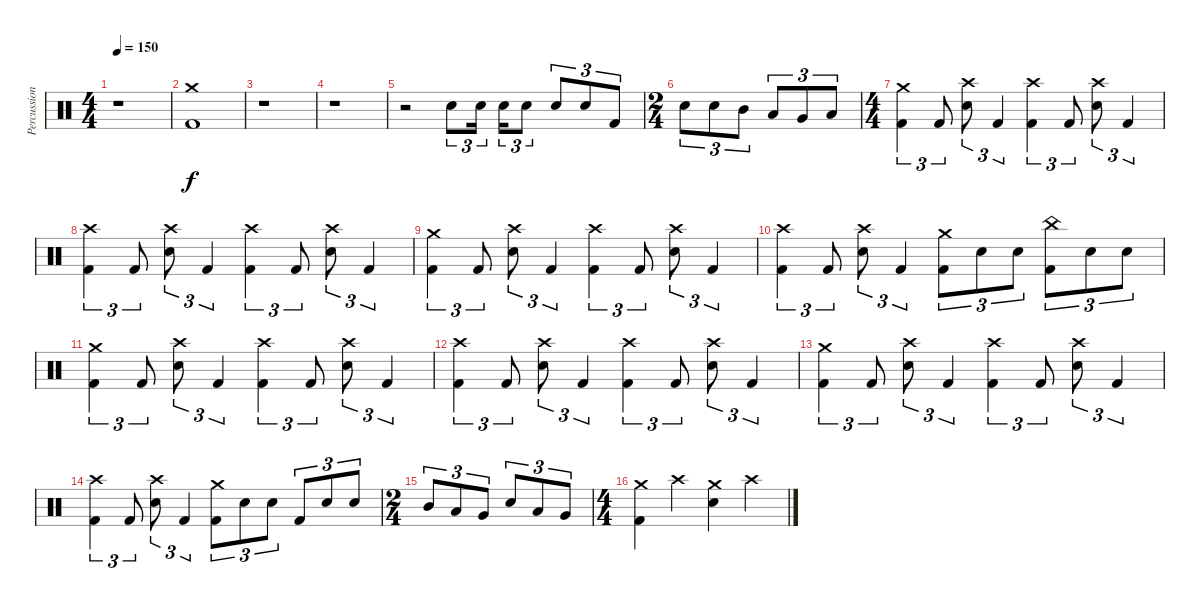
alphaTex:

\track ("Percussion" "Percussion") {instrument percussion}
\staff {score}
\articulation defaults
\ts (4 4)
\tempo 150
\clef neutral
\ks c
r.1{dy f} |
("Crash medium (hit)" "Kick (hit) 2").1 |
r.1 |
r.1 |
r.2 "Electric Snare (hit)".8{tu (3 2)} "Electric Snare (hit)".16{tu (3 2)} "Electric Snare (hit)".16{tu (3 2)} "Electric Snare (hit)".8{tu (3 2)} "Electric Snare (hit)".8{tu (3 2)} "Electric Snare (hit)".8{tu (3 2)} "Kick (hit) 2".8{tu (3 2)} |
\ts (2 4)
"Electric Snare (hit)".8{tu (3 2)} "Electric Snare (hit)".8{tu (3 2)} "Mid Tom (hit)".8{tu (3 2)} "Low Tom (hit)".8{tu (3 2)} "Very Low Tom (hit)".8{tu (3 2)} "Low Floor Tom (hit)".8{tu (3 2)} |
\ts (4 4)
("Crash medium (hit)" "Kick (hit) 2").4{tu (3 2)} "Kick (hit) 2".8{tu (3 2)} ("Crash high (hit)" "Electric Snare (hit)").8{tu (3 2)} "Kick (hit) 2".4{tu (3 2)} ("Crash high (hit)" "Kick (hit) 2").4{tu (3 2)} "Kick (hit) 2".8{tu (3 2)} ("Crash high (hit)" "Electric Snare (hit)").8{tu (3 2)} "Kick (hit) 2".4{tu (3 2)} |
("Crash high (hit)" "Kick (hit) 2").4{tu (3 2)} "Kick (hit) 2".8{tu (3 2)} ("Crash high (hit)" "Electric Snare (hit)").8{tu (3 2)} "Kick (hit) 2".4{tu (3 2)} ("Crash high (hit)" "Kick (hit) 2").4{tu (3 2)} "Kick (hit) 2".8{tu (3 2)} ("Crash high (hit)" "Electric Snare (hit)").8{tu (3 2)} "Kick (hit) 2".4{tu (3 2)} |
("Crash medium (hit)" "Kick (hit) 2").4{tu (3 2)} "Kick (hit) 2".8{tu (3 2)} ("Crash high (hit)" "Electric Snare (hit)").8{tu (3 2)} "Kick (hit) 2".4{tu (3 2)} ("Crash high (hit)" "Kick (hit) 2").4{tu (3 2)} "Kick (hit) 2".8{tu (3 2)} ("Crash high (hit)" "Electric Snare (hit)").8{tu (3 2)} "Kick (hit) 2".4{tu (3 2)} |
("Crash high (hit)" "Kick (hit) 2").4{tu (3 2)} "Kick (hit) 2".8{tu (3 2)} ("Crash high (hit)" "Electric Snare (hit)").8{tu (3 2)} "Kick (hit) 2".4{tu (3 2)} ("Crash medium (hit)" "Kick (hit) 2").8{tu (3 2)} "Electric Snare (hit)".8{tu (3 2)} "Electric Snare (hit)".8{tu (3 2)} ("China (hit)" "Kick (hit) 2").8{tu (3 2)} "Electric Snare (hit)".8{tu (3 2)} "Electric Snare (hit)".8{tu (3 2)} |
("Crash medium (hit)" "Kick (hit) 2").4{tu (3 2)} "Kick (hit) 2".8{tu (3 2)} ("Crash high (hit)" "Electric Snare (hit)").8{tu (3 2)} "Kick (hit) 2".4{tu (3 2)} ("Crash high (hit)" "Kick (hit) 2").4{tu (3 2)} "Kick (hit) 2".8{tu (3 2)} ("Crash high (hit)" "Electric Snare (hit)").8{tu (3 2)} "Kick (hit) 2".4{tu (3 2)} |
("Crash high (hit)" "Kick (hit) 2").4{tu (3 2)} "Kick (hit) 2".8{tu (3 2)} ("Crash high (hit)" "Electric Snare (hit)").8{tu (3 2)} "Kick (hit) 2".4{tu (3 2)} ("Crash high (hit)" "Kick (hit) 2").4{tu (3 2)} "Kick (hit) 2".8{tu (3 2)} ("Crash high (hit)" "Electric Snare (hit)").8{tu (3 2)} "Kick (hit) 2".4{tu (3 2)} |
("Crash medium (hit)" "Kick (hit) 2").4{tu (3 2)} "Kick (hit) 2".8{tu (3 2)} ("Crash high (hit)" "Electric Snare (hit)").8{tu (3 2)} "Kick (hit) 2".4{tu (3 2)} ("Crash high (hit)" "Kick (hit) 2").4{tu (3 2)} "Kick (hit) 2".8{tu (3 2)} ("Crash high (hit)" "Electric Snare (hit)").8{tu (3 2)} "Kick (hit) 2".4{tu (3 2)} |
("Crash high (hit)" "Kick (hit) 2").4{tu (3 2)} "Kick (hit) 2".8{tu (3 2)} ("Crash high (hit)" "Electric Snare (hit)").8{tu (3 2)} "Kick (hit) 2".4{tu (3 2)} ("Crash medium (hit)" "Kick (hit) 2").8{tu (3 2)} "Electric Snare (hit)".8{tu (3 2)} "Electric Snare (hit)".8{tu (3 2)} "Kick (hit) 2".8{tu (3 2)} "Electric Snare (hit)".8{tu (3 2)} "Electric Snare (hit)".8{tu (3 2)} |
\ts (2 4)
"Mid Tom (hit)".8{tu (3 2)} "Low Tom (hit)".8{tu (3 2)} "Very Low Tom (hit)".8{tu (3 2)} "Electric Snare (hit)".8{tu (3 2)} "Low Tom (hit)".8{tu (3 2)} "Very Low Tom (hit)".8{tu (3 2)} |
\ts (4 4)
("Crash medium (hit)" "Kick (hit) 2").4 "Crash high (hit)".4 ("Crash medium (hit)" "Electric Snare (hit)").4 "Crash high (hit)".4
